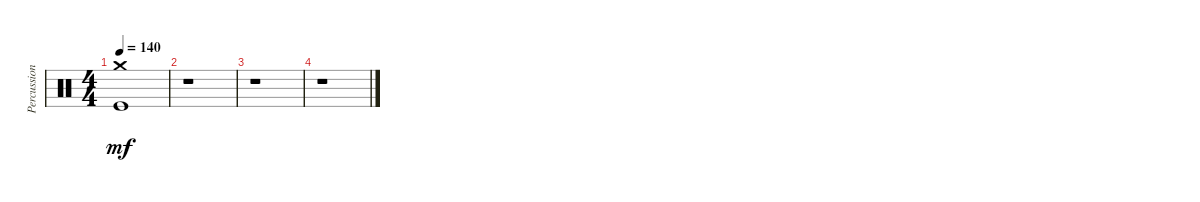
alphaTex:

\track ("Percussions" "Percussion") {instrument percussion}
\staff {score}
\articulation defaults
\ts (4 4)
\tempo 140
\clef neutral
\ks c
("Crash medium (hit)" "Kick (hit)").1{dy mf} |
r.1 |
r.1 |
r.1
